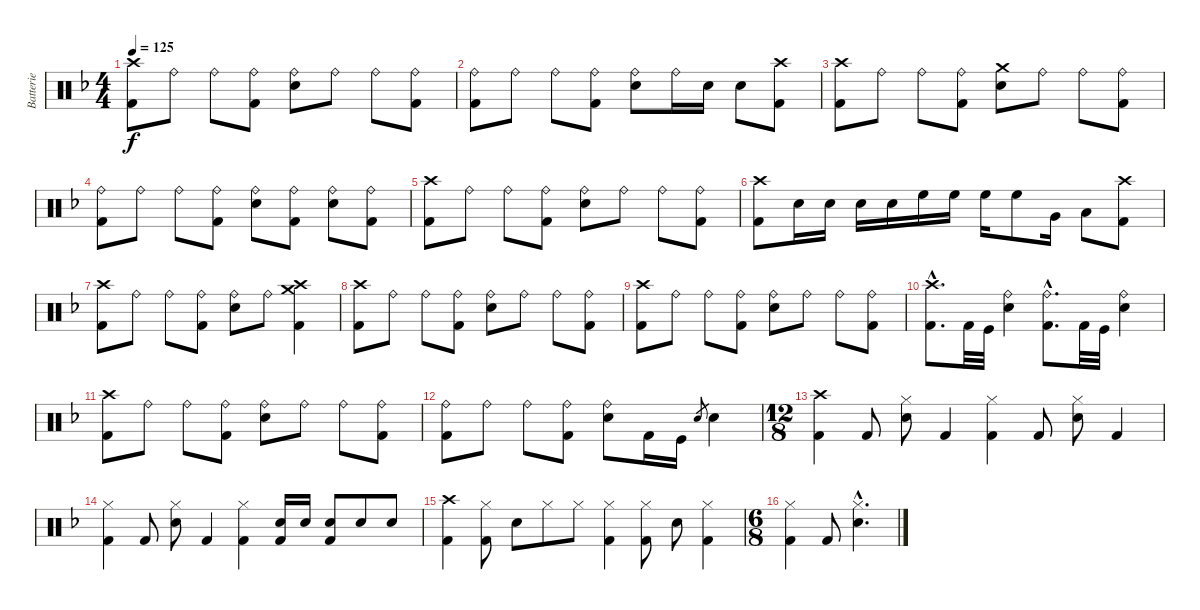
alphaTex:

\track ("Batterie" "Batterie") {instrument percussion}
\staff {score}
\articulation defaults
\ts (4 4)
\tempo 125
\clef neutral
\ks f
("Crash high (hit)" "Kick (hit) 2").8{dy f} "Ride (bell)".8 "Ride (bell)".8 ("Ride (bell)" "Kick (hit) 2").8 ("Ride (bell)" "Electric Snare (hit)").8 "Ride (bell)".8 "Ride (bell)".8 ("Ride (bell)" "Kick (hit) 2").8 |
("Ride (bell)" "Kick (hit) 2").8 "Ride (bell)".8 "Ride (bell)".8 ("Ride (bell)" "Kick (hit) 2").8 ("Ride (bell)" "Electric Snare (hit)").8 "Ride (bell)".16 "Electric Snare (hit)".16 "Electric Snare (hit)".8 ("Crash high (hit)" "Kick (hit) 2").8 |
("Crash high (hit)" "Kick (hit) 2").8 "Ride (bell)".8 "Ride (bell)".8 ("Ride (bell)" "Kick (hit) 2").8 ("Crash medium (hit)" "Electric Snare (hit)").8 "Ride (bell)".8 "Ride (bell)".8 ("Ride (bell)" "Kick (hit) 2").8 |
("Ride (bell)" "Kick (hit) 2").8 "Ride (bell)".8 "Ride (bell)".8 ("Ride (bell)" "Kick (hit) 2").8 ("Ride (bell)" "Electric Snare (hit)").8 ("Ride (bell)" "Kick (hit) 2").8 ("Ride (bell)" "Electric Snare (hit)").8 ("Ride (bell)" "Kick (hit) 2").8 |
("Crash high (hit)" "Kick (hit) 2").8 "Ride (bell)".8 "Ride (bell)".8 ("Ride (bell)" "Kick (hit) 2").8 ("Ride (bell)" "Electric Snare (hit)").8 "Ride (bell)".8 "Ride (bell)".8 ("Ride (bell)" "Kick (hit) 2").8 |
("Crash high (hit)" "Kick (hit) 2").8 "Electric Snare (hit)".16 "Electric Snare (hit)".16 "Electric Snare (hit)".16 "Electric Snare (hit)".16 "High Floor Tom (hit)".16 "High Floor Tom (hit)".16 "High Floor Tom (hit)".16 "High Floor Tom (hit)".8 "Very Low Tom (hit)".16 "Low Floor Tom (hit)".8 ("Crash high (hit)" "Kick (hit) 2").8 |
("Crash high (hit)" "Kick (hit) 2").8 "Ride (bell)".8 "Ride (bell)".8 ("Ride (bell)" "Kick (hit) 2").8 ("Ride (bell)" "Electric Snare (hit)").8 "Ride (bell)".8 ("Crash high (hit)" "Crash medium (hit)" "Kick (hit) 2").4 |
("Crash high (hit)" "Kick (hit) 2").8 "Ride (bell)".8 "Ride (bell)".8 ("Ride (bell)" "Kick (hit) 2").8 ("Ride (bell)" "Electric Snare (hit)").8 "Ride (bell)".8 "Ride (bell)".8 ("Ride (bell)" "Kick (hit) 2").8 |
("Crash high (hit)" "Kick (hit) 2").8 "Ride (bell)".8 "Ride (bell)".8 ("Ride (bell)" "Kick (hit) 2").8 ("Ride (bell)" "Electric Snare (hit)").8 "Ride (bell)".8 "Ride (bell)".8 ("Ride (bell)" "Kick (hit) 2").8 |
("Crash high (hit)"{hac} "Kick (hit) 2"{hac}).8{d} "Kick (hit) 2".32 "Kick (hit)".32 ("Ride (bell)" "Electric Snare (hit)").4 ("Ride (bell)"{hac} "Kick (hit) 2"{hac}).8{d} "Kick (hit) 2".32 "Kick (hit)".32 ("Ride (bell)" "Electric Snare (hit)").4 |
("Crash high (hit)" "Kick (hit) 2").8 "Ride (bell)".8 "Ride (bell)".8 ("Ride (bell)" "Kick (hit) 2").8 ("Ride (bell)" "Electric Snare (hit)").8 "Ride (bell)".8 "Ride (bell)".8 ("Ride (bell)" "Kick (hit) 2").8 |
("Ride (bell)" "Kick (hit) 2").8 "Ride (bell)".8 "Ride (bell)".8 ("Ride (bell)" "Kick (hit) 2").8 ("Ride (bell)" "Electric Snare (hit)").8 "Kick (hit) 2".16 "Kick (hit)".16 "Electric Snare (hit)".8{gr} "Electric Snare (hit)".4 |
\ts (12 8)
("Crash high (hit)" "Kick (hit) 2").4 "Kick (hit) 2".8 ("Hi-Hat (closed)" "Electric Snare (hit)").8 "Kick (hit) 2".4 ("Hi-Hat (closed)" "Kick (hit) 2").4 "Kick (hit) 2".8 ("Hi-Hat (closed)" "Electric Snare (hit)").8 "Kick (hit) 2".4 |
("Hi-Hat (closed)" "Kick (hit) 2").4 "Kick (hit) 2".8 ("Hi-Hat (closed)" "Electric Snare (hit)").8 "Kick (hit) 2".4 ("Hi-Hat (closed)" "Kick (hit) 2").4 ("Electric Snare (hit)" "Kick (hit) 2").16 "Electric Snare (hit)".16 ("Electric Snare (hit)" "Kick (hit) 2").8 "Electric Snare (hit)".8 "Electric Snare (hit)".8 |
("Crash high (hit)" "Kick (hit) 2").4 ("Hi-Hat (closed)" "Kick (hit) 2").8 "Electric Snare (hit)".8 "Hi-Hat (closed)".8 "Hi-Hat (closed)".8 ("Hi-Hat (closed)" "Kick (hit) 2").4 ("Hi-Hat (closed)" "Kick (hit) 2").8 "Electric Snare (hit)".8 ("Hi-Hat (closed)" "Kick (hit) 2").4 |
\ts (6 8)
("Hi-Hat (closed)" "Kick (hit) 2").4 "Kick (hit) 2".8 ("Hi-Hat (closed)"{hac} "Electric Snare (hit)"{hac}).4{d}
